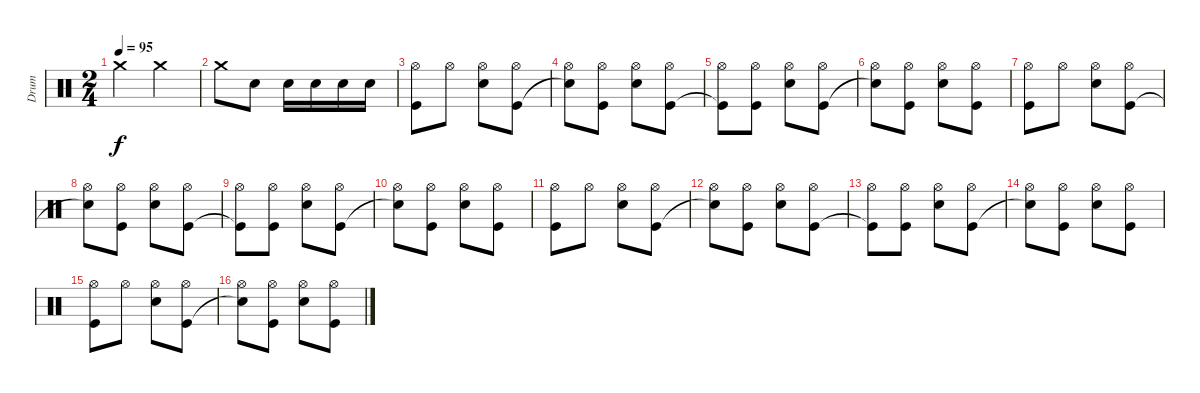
\track ("Drum" "Drum") {instrument percussion}
\staff {score}
\articulation defaults
\ts (2 4)
\tempo 95
\clef neutral
\ks c "Crash medium (hit)".4{dy f} "Crash medium (hit)".4
|
"Crash medium (hit)".8 "Electric Snare (hit)".8 "Electric Snare (hit)".16 "Electric Snare (hit)".16 "Electric Snare (hit)".16 "Electric Snare (hit)".16 |
("Kick (hit)" "Hi-Hat (open)").8 "Hi-Hat (open)".8 ("Electric Snare (hit)" "Hi-Hat (open)").8 ("Kick (hit)" "Hi-Hat (open)").8 |
("Snare (hit)"{t} "Hi-Hat (open)").8 ("Kick (hit)" "Hi-Hat (open)").8 ("Electric Snare (hit)" "Hi-Hat (open)").8 ("Kick (hit)" "Hi-Hat (open)").8 |
("Kick (hit)"{t} "Hi-Hat (open)").8 ("Kick (hit)" "Hi-Hat (open)").8 ("Electric Snare (hit)" "Hi-Hat (open)").8 ("Kick (hit)" "Hi-Hat (open)").8 |
("Snare (hit)"{t} "Hi-Hat (open)").8 ("Kick (hit)" "Hi-Hat (open)").8 ("Electric Snare (hit)" "Hi-Hat (open)").8 ("Kick (hit)" "Hi-Hat (open)").8 |
("Kick (hit)" "Hi-Hat (open)").8 "Hi-Hat (open)".8 ("Electric Snare (hit)" "Hi-Hat (open)").8 ("Kick (hit)" "Hi-Hat (open)").8 |
("Snare (hit)"{t} "Hi-Hat (open)").8 ("Kick (hit)" "Hi-Hat (open)").8 ("Electric Snare (hit)" "Hi-Hat (open)").8 ("Kick (hit)" "Hi-Hat (open)").8 |
("Kick (hit)"{t} "Hi-Hat (open)").8 ("Kick (hit)" "Hi-Hat (open)").8 ("Electric Snare (hit)" "Hi-Hat (open)").8 ("Kick (hit)" "Hi-Hat (open)").8 |
("Snare (hit)"{t} "Hi-Hat (open)").8 ("Kick (hit)" "Hi-Hat (open)").8 ("Electric Snare (hit)" "Hi-Hat (open)").8 ("Kick (hit)" "Hi-Hat (open)").8 |
("Kick (hit)" "Hi-Hat (open)").8 "Hi-Hat (open)".8 ("Electric Snare (hit)" "Hi-Hat (open)").8 ("Kick (hit)" "Hi-Hat (open)").8 |
("Snare (hit)"{t} "Hi-Hat (open)").8 ("Kick (hit)" "Hi-Hat (open)").8 ("Electric Snare (hit)" "Hi-Hat (open)").8 ("Kick (hit)" "Hi-Hat (open)").8 |
("Kick (hit)"{t} "Hi-Hat (open)").8 ("Kick (hit)" "Hi-Hat (open)").8 ("Electric Snare (hit)" "Hi-Hat (open)").8 ("Kick (hit)" "Hi-Hat (open)").8 |
("Snare (hit)"{t} "Hi-Hat (open)").8 ("Kick (hit)" "Hi-Hat (open)").8 ("Electric Snare (hit)" "Hi-Hat (open)").8 ("Kick (hit)" "Hi-Hat (open)").8 |
("Kick (hit)" "Hi-Hat (open)").8 "Hi-Hat (open)".8 ("Electric Snare (hit)" "Hi-Hat (open)").8 ("Kick (hit)" "Hi-Hat (open)").8 |
("Snare (hit)"{t} "Hi-Hat (open)").8 ("Kick (hit)" "Hi-Hat (open)").8 ("Electric Snare (hit)" "Hi-Hat (open)").8 ("Kick (hit)" "Hi-Hat (open)").8
